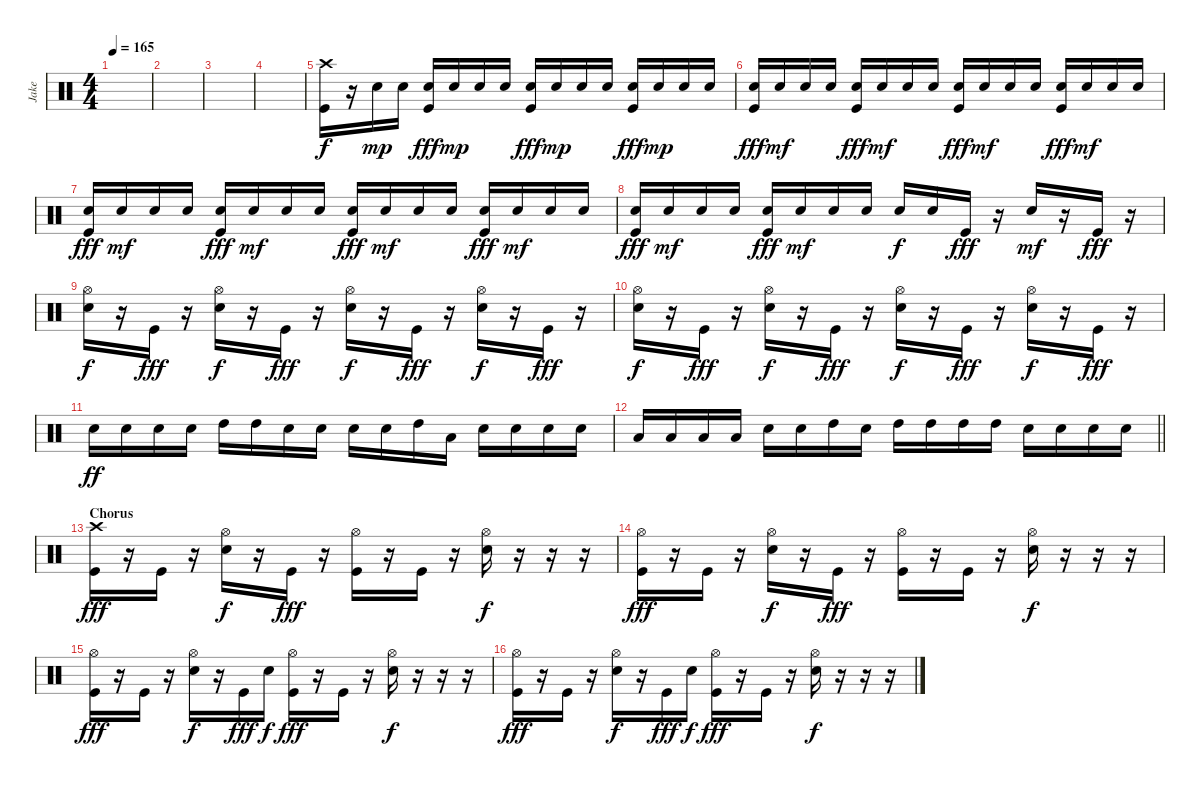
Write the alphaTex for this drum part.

\track ("Jake" "Jake") {instrument percussion}
\staff {score}
\articulation defaults
\ts (4 4)
\tempo 165
\clef neutral
\ks c
|
|
|
|
("Crash high (hit)" "Kick (hit)").16 r.16 "Electric Snare (hit)".16{dy mp} "Electric Snare (hit)".16 ("Electric Snare (hit)" "Kick (hit)").16{dy fff} "Electric Snare (hit)".16{dy mp} "Electric Snare (hit)".16 "Electric Snare (hit)".16 ("Electric Snare (hit)" "Kick (hit)").16{dy fff} "Electric Snare (hit)".16{dy mp} "Electric Snare (hit)".16 "Electric Snare (hit)".16 ("Electric Snare (hit)" "Kick (hit)").16{dy fff} "Electric Snare (hit)".16{dy mp} "Electric Snare (hit)".16 "Electric Snare (hit)".16 |
("Electric Snare (hit)" "Kick (hit)").16{dy fff} "Electric Snare (hit)".16{dy mf} "Electric Snare (hit)".16 "Electric Snare (hit)".16 ("Electric Snare (hit)" "Kick (hit)").16{dy fff} "Electric Snare (hit)".16{dy mf} "Electric Snare (hit)".16 "Electric Snare (hit)".16 ("Electric Snare (hit)" "Kick (hit)").16{dy fff} "Electric Snare (hit)".16{dy mf} "Electric Snare (hit)".16 "Electric Snare (hit)".16 ("Electric Snare (hit)" "Kick (hit)").16{dy fff} "Electric Snare (hit)".16{dy mf} "Electric Snare (hit)".16 "Electric Snare (hit)".16 |
("Electric Snare (hit)" "Kick (hit)").16{dy fff} "Electric Snare (hit)".16{dy mf} "Electric Snare (hit)".16 "Electric Snare (hit)".16 ("Electric Snare (hit)" "Kick (hit)").16{dy fff} "Electric Snare (hit)".16{dy mf} "Electric Snare (hit)".16 "Electric Snare (hit)".16 ("Electric Snare (hit)" "Kick (hit)").16{dy fff} "Electric Snare (hit)".16{dy mf} "Electric Snare (hit)".16 "Electric Snare (hit)".16 ("Electric Snare (hit)" "Kick (hit)").16{dy fff} "Electric Snare (hit)".16{dy mf} "Electric Snare (hit)".16 "Electric Snare (hit)".16 |
("Electric Snare (hit)" "Kick (hit)").16{dy fff} "Electric Snare (hit)".16{dy mf} "Electric Snare (hit)".16 "Electric Snare (hit)".16 ("Electric Snare (hit)" "Kick (hit)").16{dy fff} "Electric Snare (hit)".16{dy mf} "Electric Snare (hit)".16 "Electric Snare (hit)".16 "Electric Snare (hit)".16{dy f} "Electric Snare (hit)".16 "Kick (hit)".16{dy fff} r.16 "Electric Snare (hit)".16{dy mf} r.16 "Kick (hit)".16{dy fff} r.16 |
("Hi-Hat (open)" "Electric Snare (hit)").16{dy f} r.16 "Kick (hit)".16{dy fff} r.16 ("Hi-Hat (open)" "Electric Snare (hit)").16{dy f} r.16 "Kick (hit)".16{dy fff} r.16 ("Hi-Hat (open)" "Electric Snare (hit)").16{dy f} r.16 "Kick (hit)".16{dy fff} r.16 ("Hi-Hat (open)" "Electric Snare (hit)").16{dy f} r.16 "Kick (hit)".16{dy fff} r.16 |
("Hi-Hat (open)" "Electric Snare (hit)").16{dy f} r.16 "Kick (hit)".16{dy fff} r.16 ("Hi-Hat (open)" "Electric Snare (hit)").16{dy f} r.16 "Kick (hit)".16{dy fff} r.16 ("Hi-Hat (open)" "Electric Snare (hit)").16{dy f} r.16 "Kick (hit)".16{dy fff} r.16 ("Hi-Hat (open)" "Electric Snare (hit)").16{dy f} r.16 "Kick (hit)".16{dy fff} r.16 |
"Electric Snare (hit)".16{dy ff} "Electric Snare (hit)".16 "Electric Snare (hit)".16 "Electric Snare (hit)".16 "High Tom (hit)".16 "High Tom (hit)".16 "Electric Snare (hit)".16 "Electric Snare (hit)".16 "Electric Snare (hit)".16 "Electric Snare (hit)".16 "High Tom (hit)".16 "Low Tom (hit)".16 "Electric Snare (hit)".16 "Electric Snare (hit)".16 "Electric Snare (hit)".16 "Electric Snare (hit)".16 |
\barLineRight lightlight "Low Tom (hit)".16 "Low Tom (hit)".16 "Low Tom (hit)".16 "Low Tom (hit)".16 "Electric Snare (hit)".16 "Electric Snare (hit)".16 "High Tom (hit)".16 "Electric Snare (hit)".16 "High Tom (hit)".16 "High Tom (hit)".16 "High Tom (hit)".16 "High Tom (hit)".16 "Electric Snare (hit)".16 "Electric Snare (hit)".16 "Electric Snare (hit)".16 "Electric Snare (hit)".16
|
\section ("" "Chorus")
("Crash high (hit)" "Kick (hit)").16{dy fff} r.16 "Kick (hit)".16 r.16 ("Hi-Hat (open)" "Electric Snare (hit)").16{dy f} r.16 "Kick (hit)".16{dy fff} r.16 ("Hi-Hat (open)" "Kick (hit)").16 r.16 "Kick (hit)".16 r.16 ("Hi-Hat (open)" "Electric Snare (hit)").16{dy f} r.16 r.16 r.16 |
("Hi-Hat (open)" "Kick (hit)").16{dy fff} r.16 "Kick (hit)".16 r.16 ("Hi-Hat (open)" "Electric Snare (hit)").16{dy f} r.16 "Kick (hit)".16{dy fff} r.16 ("Hi-Hat (open)" "Kick (hit)").16 r.16 "Kick (hit)".16 r.16 ("Hi-Hat (open)" "Electric Snare (hit)").16{dy f} r.16 r.16 r.16 |
("Hi-Hat (open)" "Kick (hit)").16{dy fff} r.16 "Kick (hit)".16 r.16 ("Hi-Hat (open)" "Electric Snare (hit)").16{dy f} r.16 "Kick (hit)".16{dy fff} "Electric Snare (hit)".16{dy f} ("Hi-Hat (open)" "Kick (hit)").16{dy fff} r.16 "Kick (hit)".16 r.16 ("Hi-Hat (open)" "Electric Snare (hit)").16{dy f} r.16 r.16 r.16 |
("Hi-Hat (open)" "Kick (hit)").16{dy fff} r.16 "Kick (hit)".16 r.16 ("Hi-Hat (open)" "Electric Snare (hit)").16{dy f} r.16 "Kick (hit)".16{dy fff} "Electric Snare (hit)".16{dy f} ("Hi-Hat (open)" "Kick (hit)").16{dy fff} r.16 "Kick (hit)".16 r.16 ("Hi-Hat (open)" "Electric Snare (hit)").16{dy f} r.16 r.16 r.16
